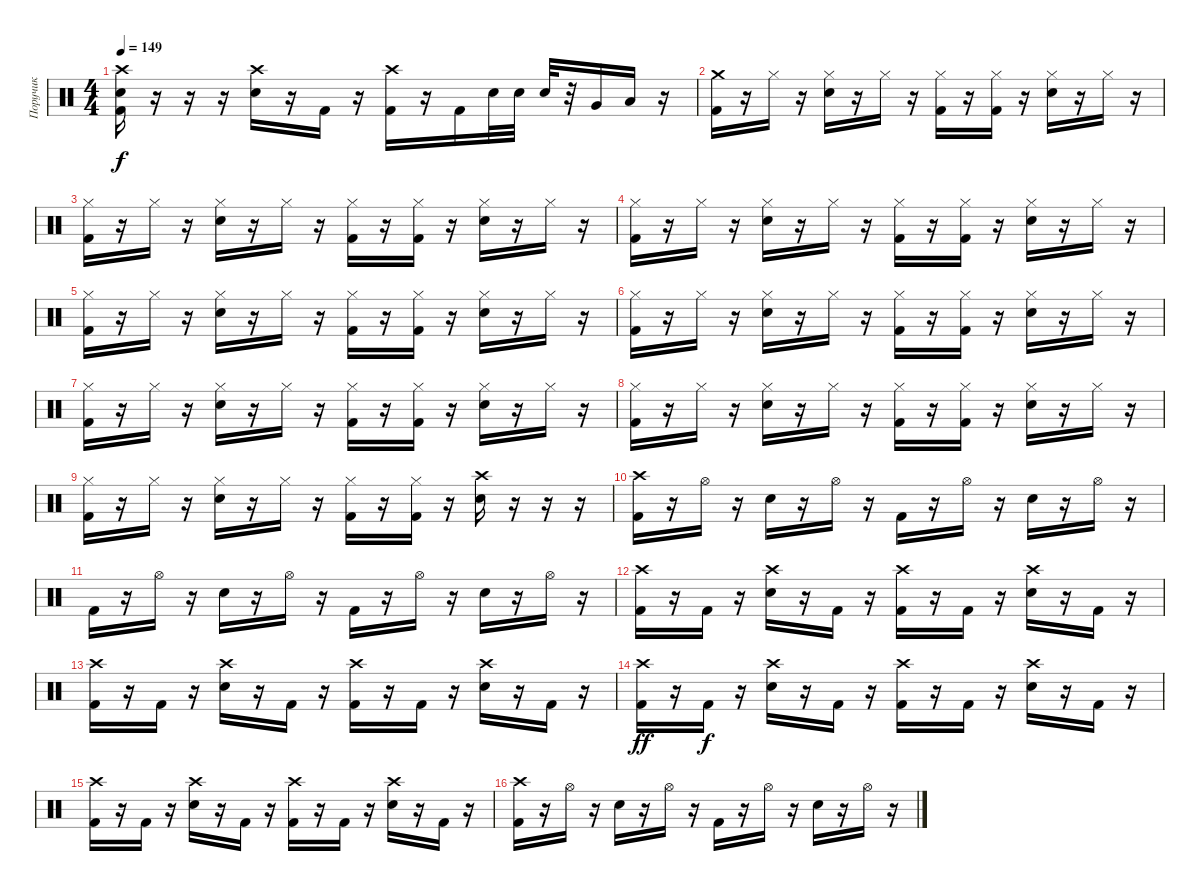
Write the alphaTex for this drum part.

\track ("Поручик" "Поручик") {instrument percussion}
\staff {score}
\articulation defaults
\ts (4 4)
\tempo 149
\clef neutral
\ks c
("Crash high (hit)" "Snare (hit) 2" "Kick (hit) 2").16{dy f} r.16 r.16 r.16 ("Crash high (hit)" "Snare (hit) 2").16 r.16 "Kick (hit) 2".16 r.16 ("Crash high (hit)" "Kick (hit) 2").16 r.16 "Kick (hit) 2".16 "Snare (hit) 2".32 "Snare (hit) 2".32 "Snare (hit) 2".32 r.32 "Very Low Tom (hit)".16 "Low Floor Tom (hit)".16 r.16 |
("Crash medium (hit)" "Kick (hit) 2").16 r.16 "Hi-Hat (closed)".16 r.16 ("Hi-Hat (closed)" "Snare (hit) 2").16 r.16 "Hi-Hat (closed)".16 r.16 ("Hi-Hat (closed)" "Kick (hit) 2").16 r.16 ("Hi-Hat (closed)" "Kick (hit) 2").16 r.16 ("Hi-Hat (closed)" "Snare (hit) 2").16 r.16 "Hi-Hat (closed)".16 r.16 |
("Hi-Hat (closed)" "Kick (hit) 2").16 r.16 "Hi-Hat (closed)".16 r.16 ("Hi-Hat (closed)" "Snare (hit) 2").16 r.16 "Hi-Hat (closed)".16 r.16 ("Hi-Hat (closed)" "Kick (hit) 2").16 r.16 ("Hi-Hat (closed)" "Kick (hit) 2").16 r.16 ("Hi-Hat (closed)" "Snare (hit) 2").16 r.16 "Hi-Hat (closed)".16 r.16 |
("Hi-Hat (closed)" "Kick (hit) 2").16 r.16 "Hi-Hat (closed)".16 r.16 ("Hi-Hat (closed)" "Snare (hit) 2").16 r.16 "Hi-Hat (closed)".16 r.16 ("Hi-Hat (closed)" "Kick (hit) 2").16 r.16 ("Hi-Hat (closed)" "Kick (hit) 2").16 r.16 ("Hi-Hat (closed)" "Snare (hit) 2").16 r.16 "Hi-Hat (closed)".16 r.16 |
("Hi-Hat (closed)" "Kick (hit) 2").16 r.16 "Hi-Hat (closed)".16 r.16 ("Hi-Hat (closed)" "Snare (hit) 2").16 r.16 "Hi-Hat (closed)".16 r.16 ("Hi-Hat (closed)" "Kick (hit) 2").16 r.16 ("Hi-Hat (closed)" "Kick (hit) 2").16 r.16 ("Hi-Hat (closed)" "Snare (hit) 2").16 r.16 "Hi-Hat (closed)".16 r.16 |
("Hi-Hat (closed)" "Kick (hit) 2").16 r.16 "Hi-Hat (closed)".16 r.16 ("Hi-Hat (closed)" "Snare (hit) 2").16 r.16 "Hi-Hat (closed)".16 r.16 ("Hi-Hat (closed)" "Kick (hit) 2").16 r.16 ("Hi-Hat (closed)" "Kick (hit) 2").16 r.16 ("Hi-Hat (closed)" "Snare (hit) 2").16 r.16 "Hi-Hat (closed)".16 r.16 |
("Hi-Hat (closed)" "Kick (hit) 2").16 r.16 "Hi-Hat (closed)".16 r.16 ("Hi-Hat (closed)" "Snare (hit) 2").16 r.16 "Hi-Hat (closed)".16 r.16 ("Hi-Hat (closed)" "Kick (hit) 2").16 r.16 ("Hi-Hat (closed)" "Kick (hit) 2").16 r.16 ("Hi-Hat (closed)" "Snare (hit) 2").16 r.16 "Hi-Hat (closed)".16 r.16 |
("Hi-Hat (closed)" "Kick (hit) 2").16 r.16 "Hi-Hat (closed)".16 r.16 ("Hi-Hat (closed)" "Snare (hit) 2").16 r.16 "Hi-Hat (closed)".16 r.16 ("Hi-Hat (closed)" "Kick (hit) 2").16 r.16 ("Hi-Hat (closed)" "Kick (hit) 2").16 r.16 ("Hi-Hat (closed)" "Snare (hit) 2").16 r.16 "Hi-Hat (closed)".16 r.16 |
("Hi-Hat (closed)" "Kick (hit) 2").16 r.16 "Hi-Hat (closed)".16 r.16 ("Hi-Hat (closed)" "Snare (hit) 2").16 r.16 "Hi-Hat (closed)".16 r.16 ("Hi-Hat (closed)" "Kick (hit) 2").16 r.16 ("Hi-Hat (closed)" "Kick (hit) 2").16 r.16 ("Crash high (hit)" "Snare (hit) 2").16 r.16 r.16 r.16 |
("Crash high (hit)" "Kick (hit) 2").16 r.16 "Hi-Hat (open)".16 r.16 "Snare (hit) 2".16 r.16 "Hi-Hat (open)".16 r.16 "Kick (hit) 2".16 r.16 "Hi-Hat (open)".16 r.16 "Snare (hit) 2".16 r.16 "Hi-Hat (open)".16 r.16 |
"Kick (hit) 2".16 r.16 "Hi-Hat (open)".16 r.16 "Snare (hit) 2".16 r.16 "Hi-Hat (open)".16 r.16 "Kick (hit) 2".16 r.16 "Hi-Hat (open)".16 r.16 "Snare (hit) 2".16 r.16 "Hi-Hat (open)".16 r.16 |
("Crash high (hit)" "Kick (hit) 2").16 r.16 "Kick (hit) 2".16 r.16 ("Crash high (hit)" "Snare (hit) 2").16 r.16 "Kick (hit) 2".16 r.16 ("Crash high (hit)" "Kick (hit) 2").16 r.16 "Kick (hit) 2".16 r.16 ("Crash high (hit)" "Snare (hit) 2").16 r.16 "Kick (hit) 2".16 r.16 |
("Crash high (hit)" "Kick (hit) 2").16 r.16 "Kick (hit) 2".16 r.16 ("Crash high (hit)" "Snare (hit) 2").16 r.16 "Kick (hit) 2".16 r.16 ("Crash high (hit)" "Kick (hit) 2").16 r.16 "Kick (hit) 2".16 r.16 ("Crash high (hit)" "Snare (hit) 2").16 r.16 "Kick (hit) 2".16 r.16 |
("Crash high (hit)" "Kick (hit) 2").16{dy ff} r.16 "Kick (hit) 2".16{dy f} r.16 ("Crash high (hit)" "Snare (hit) 2").16 r.16 "Kick (hit) 2".16 r.16 ("Crash high (hit)" "Kick (hit) 2").16 r.16 "Kick (hit) 2".16 r.16 ("Crash high (hit)" "Snare (hit) 2").16 r.16 "Kick (hit) 2".16 r.16 |
("Crash high (hit)" "Kick (hit) 2").16 r.16 "Kick (hit) 2".16 r.16 ("Crash high (hit)" "Snare (hit) 2").16 r.16 "Kick (hit) 2".16 r.16 ("Crash high (hit)" "Kick (hit) 2").16 r.16 "Kick (hit) 2".16 r.16 ("Crash high (hit)" "Snare (hit) 2").16 r.16 "Kick (hit) 2".16 r.16 |
("Crash high (hit)" "Kick (hit) 2").16 r.16 "Hi-Hat (open)".16 r.16 "Snare (hit) 2".16 r.16 "Hi-Hat (open)".16 r.16 "Kick (hit) 2".16 r.16 "Hi-Hat (open)".16 r.16 "Snare (hit) 2".16 r.16 "Hi-Hat (open)".16 r.16
